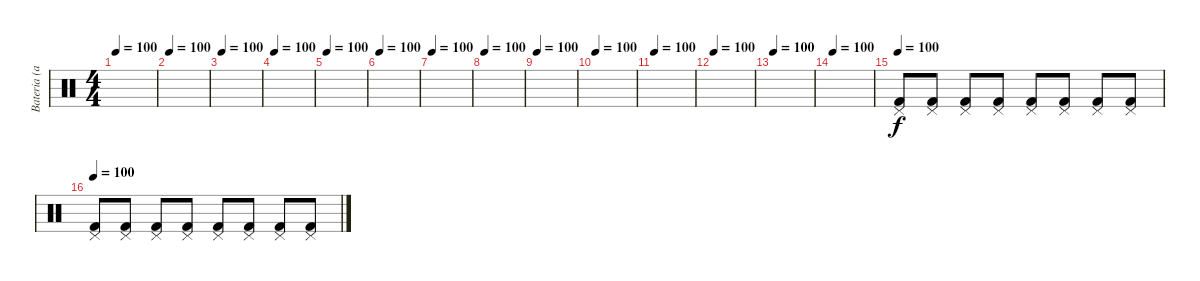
\track ("Bateria (aux)" "Bateria (a") {instrument percussion}
\staff {score}
\articulation defaults
\ts (4 4)
\tempo 100
\clef neutral
\ks c
|
\tempo 100
|
\tempo 100
|
\tempo 100
|
\tempo 100
|
\tempo 100
|
\tempo 100
|
\tempo 100
|
\tempo 100
|
\tempo 100
|
\tempo 100
|
\tempo 100
|
\tempo 100
|
\tempo 100
|
\tempo 100
("Pedal Hi-Hat (hit)" "Kick (hit) 2").8 ("Pedal Hi-Hat (hit)" "Kick (hit) 2").8 ("Pedal Hi-Hat (hit)" "Kick (hit) 2").8 ("Pedal Hi-Hat (hit)" "Kick (hit) 2").8 ("Pedal Hi-Hat (hit)" "Kick (hit) 2").8 ("Pedal Hi-Hat (hit)" "Kick (hit) 2").8 ("Pedal Hi-Hat (hit)" "Kick (hit) 2").8 ("Pedal Hi-Hat (hit)" "Kick (hit) 2").8 |
\tempo 100
("Pedal Hi-Hat (hit)" "Kick (hit) 2").8 ("Pedal Hi-Hat (hit)" "Kick (hit) 2").8 ("Pedal Hi-Hat (hit)" "Kick (hit) 2").8 ("Pedal Hi-Hat (hit)" "Kick (hit) 2").8 ("Pedal Hi-Hat (hit)" "Kick (hit) 2").8 ("Pedal Hi-Hat (hit)" "Kick (hit) 2").8 ("Pedal Hi-Hat (hit)" "Kick (hit) 2").8 ("Pedal Hi-Hat (hit)" "Kick (hit) 2").8
